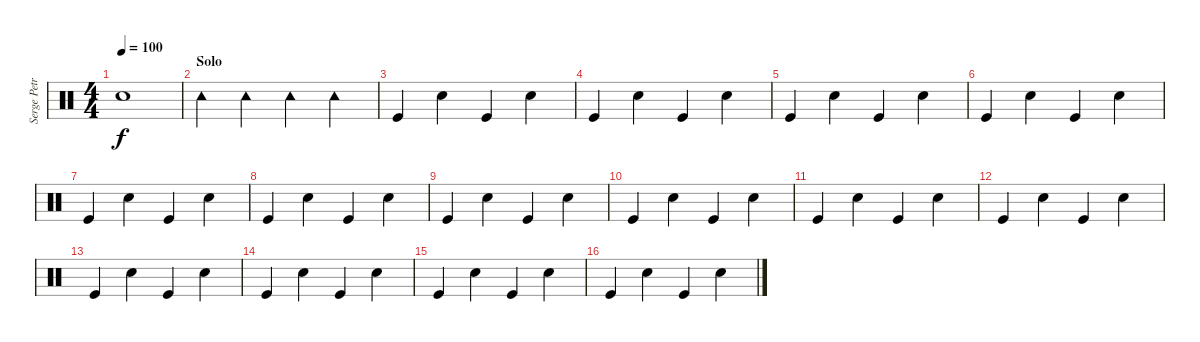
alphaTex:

\track ("Serge Petrone" "Serge Petr") {instrument percussion}
\staff {score}
\articulation defaults
\ts (4 4)
\tempo 100
\clef neutral
\ks c "Snare (hit) 2".1{dy f}
|
\section ("" "Solo")
"Tambourine (hit)".4 "Tambourine (hit)".4 "Tambourine (hit)".4 "Tambourine (hit)".4 |
"Kick (hit)".4 "Snare (hit) 2".4 "Kick (hit)".4 "Snare (hit) 2".4 |
"Kick (hit)".4 "Snare (hit) 2".4 "Kick (hit)".4 "Snare (hit) 2".4 |
"Kick (hit)".4 "Snare (hit) 2".4 "Kick (hit)".4 "Snare (hit) 2".4 |
"Kick (hit)".4 "Snare (hit) 2".4 "Kick (hit)".4 "Snare (hit) 2".4 |
"Kick (hit)".4 "Snare (hit) 2".4 "Kick (hit)".4 "Snare (hit) 2".4 |
"Kick (hit)".4 "Snare (hit) 2".4 "Kick (hit)".4 "Snare (hit) 2".4 |
"Kick (hit)".4 "Snare (hit) 2".4 "Kick (hit)".4 "Snare (hit) 2".4 |
"Kick (hit)".4 "Snare (hit) 2".4 "Kick (hit)".4 "Snare (hit) 2".4 |
"Kick (hit)".4 "Snare (hit) 2".4 "Kick (hit)".4 "Snare (hit) 2".4 |
"Kick (hit)".4 "Snare (hit) 2".4 "Kick (hit)".4 "Snare (hit) 2".4 |
"Kick (hit)".4 "Snare (hit) 2".4 "Kick (hit)".4 "Snare (hit) 2".4 |
"Kick (hit)".4 "Snare (hit) 2".4 "Kick (hit)".4 "Snare (hit) 2".4 |
"Kick (hit)".4 "Snare (hit) 2".4 "Kick (hit)".4 "Snare (hit) 2".4 |
"Kick (hit)".4 "Snare (hit) 2".4 "Kick (hit)".4 "Snare (hit) 2".4
